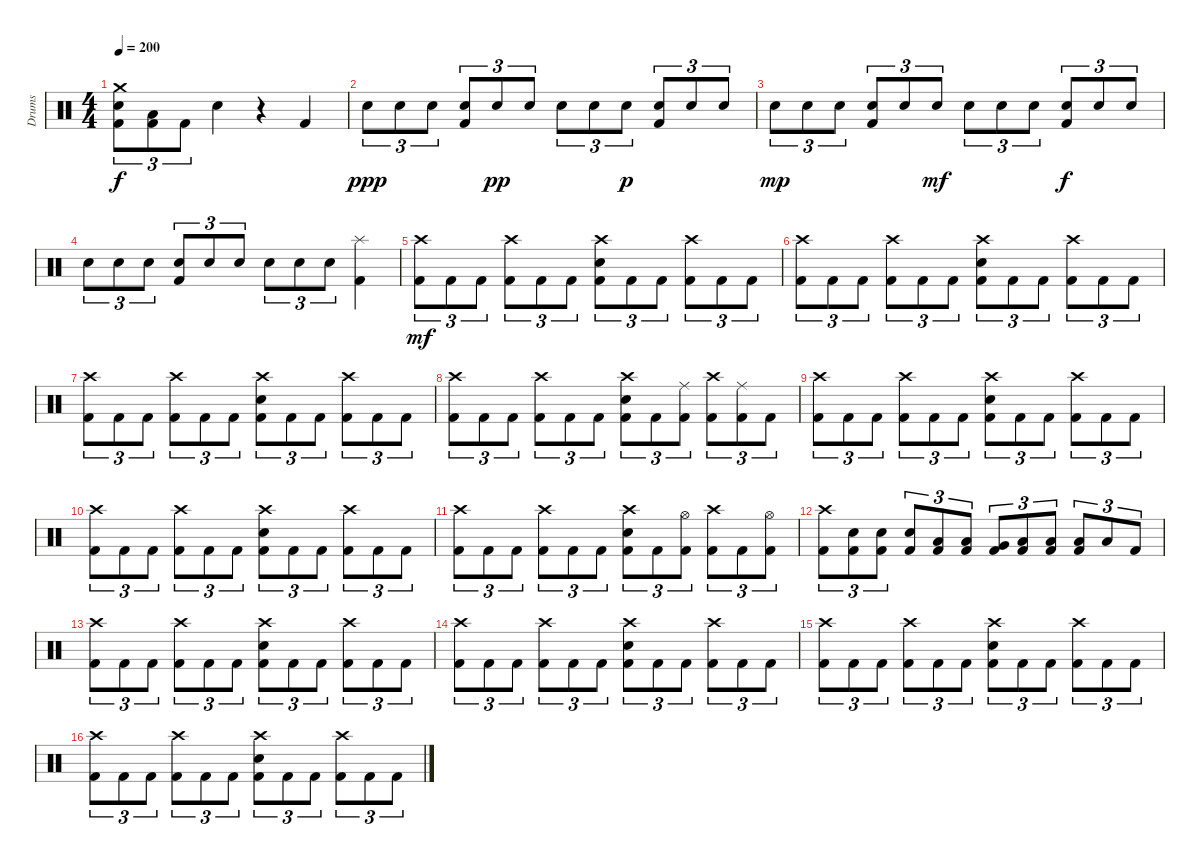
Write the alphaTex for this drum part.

\track ("Drums" "Drums") {instrument percussion}
\staff {score}
\articulation defaults
\ts (4 4)
\tempo 200
\clef neutral
\ks c
("Crash medium (hit)" "Electric Snare (hit)" "Kick (hit) 2").8{tu (3 2) dy f} ("Low Floor Tom (hit)" "Kick (hit) 2").8{tu (3 2)} "Kick (hit) 2".8{tu (3 2)} "Electric Snare (hit)".4 r.4 "Kick (hit) 2".4 |
"Electric Snare (hit)".8{tu (3 2) dy ppp} "Electric Snare (hit)".8{tu (3 2)} "Electric Snare (hit)".8{tu (3 2)} ("Electric Snare (hit)" "Kick (hit) 2").8{tu (3 2)} "Electric Snare (hit)".8{tu (3 2) dy pp} "Electric Snare (hit)".8{tu (3 2)} "Electric Snare (hit)".8{tu (3 2)} "Electric Snare (hit)".8{tu (3 2)} "Electric Snare (hit)".8{tu (3 2) dy p} ("Electric Snare (hit)" "Kick (hit) 2").8{tu (3 2)} "Electric Snare (hit)".8{tu (3 2)} "Electric Snare (hit)".8{tu (3 2)} |
"Electric Snare (hit)".8{tu (3 2) dy mp} "Electric Snare (hit)".8{tu (3 2)} "Electric Snare (hit)".8{tu (3 2)} ("Electric Snare (hit)" "Kick (hit) 2").8{tu (3 2)} "Electric Snare (hit)".8{tu (3 2)} "Electric Snare (hit)".8{tu (3 2) dy mf} "Electric Snare (hit)".8{tu (3 2)} "Electric Snare (hit)".8{tu (3 2)} "Electric Snare (hit)".8{tu (3 2)} ("Electric Snare (hit)" "Kick (hit) 2").8{tu (3 2) dy f} "Electric Snare (hit)".8{tu (3 2)} "Electric Snare (hit)".8{tu (3 2)} |
"Electric Snare (hit)".8{tu (3 2)} "Electric Snare (hit)".8{tu (3 2)} "Electric Snare (hit)".8{tu (3 2)} ("Electric Snare (hit)" "Kick (hit) 2").8{tu (3 2)} "Electric Snare (hit)".8{tu (3 2)} "Electric Snare (hit)".8{tu (3 2)} "Electric Snare (hit)".8{tu (3 2)} "Electric Snare (hit)".8{tu (3 2)} "Electric Snare (hit)".8{tu (3 2)} ("Splash (hit)" "Kick (hit) 2").4 |
("Crash high (hit)" "Kick (hit) 2").8{tu (3 2) dy mf} "Kick (hit) 2".8{tu (3 2)} "Kick (hit) 2".8{tu (3 2)} ("Crash high (hit)" "Kick (hit) 2").8{tu (3 2)} "Kick (hit) 2".8{tu (3 2)} "Kick (hit) 2".8{tu (3 2)} ("Crash high (hit)" "Electric Snare (hit)" "Kick (hit) 2").8{tu (3 2)} "Kick (hit) 2".8{tu (3 2)} "Kick (hit) 2".8{tu (3 2)} ("Crash high (hit)" "Kick (hit) 2").8{tu (3 2)} "Kick (hit) 2".8{tu (3 2)} "Kick (hit) 2".8{tu (3 2)} |
("Crash high (hit)" "Kick (hit) 2").8{tu (3 2)} "Kick (hit) 2".8{tu (3 2)} "Kick (hit) 2".8{tu (3 2)} ("Crash high (hit)" "Kick (hit) 2").8{tu (3 2)} "Kick (hit) 2".8{tu (3 2)} "Kick (hit) 2".8{tu (3 2)} ("Crash high (hit)" "Electric Snare (hit)" "Kick (hit) 2").8{tu (3 2)} "Kick (hit) 2".8{tu (3 2)} "Kick (hit) 2".8{tu (3 2)} ("Crash high (hit)" "Kick (hit) 2").8{tu (3 2)} "Kick (hit) 2".8{tu (3 2)} "Kick (hit) 2".8{tu (3 2)} |
("Crash high (hit)" "Kick (hit) 2").8{tu (3 2)} "Kick (hit) 2".8{tu (3 2)} "Kick (hit) 2".8{tu (3 2)} ("Crash high (hit)" "Kick (hit) 2").8{tu (3 2)} "Kick (hit) 2".8{tu (3 2)} "Kick (hit) 2".8{tu (3 2)} ("Crash high (hit)" "Electric Snare (hit)" "Kick (hit) 2").8{tu (3 2)} "Kick (hit) 2".8{tu (3 2)} "Kick (hit) 2".8{tu (3 2)} ("Crash high (hit)" "Kick (hit) 2").8{tu (3 2)} "Kick (hit) 2".8{tu (3 2)} "Kick (hit) 2".8{tu (3 2)} |
("Crash high (hit)" "Kick (hit) 2").8{tu (3 2)} "Kick (hit) 2".8{tu (3 2)} "Kick (hit) 2".8{tu (3 2)} ("Crash high (hit)" "Kick (hit) 2").8{tu (3 2)} "Kick (hit) 2".8{tu (3 2)} "Kick (hit) 2".8{tu (3 2)} ("Crash high (hit)" "Electric Snare (hit)" "Kick (hit) 2").8{tu (3 2)} "Kick (hit) 2".8{tu (3 2)} ("Ride (middle)" "Kick (hit) 2").8{tu (3 2)} ("Crash high (hit)" "Kick (hit) 2").8{tu (3 2)} ("Ride (middle)" "Kick (hit) 2").8{tu (3 2)} "Kick (hit) 2".8{tu (3 2)} |
("Crash high (hit)" "Kick (hit) 2").8{tu (3 2)} "Kick (hit) 2".8{tu (3 2)} "Kick (hit) 2".8{tu (3 2)} ("Crash high (hit)" "Kick (hit) 2").8{tu (3 2)} "Kick (hit) 2".8{tu (3 2)} "Kick (hit) 2".8{tu (3 2)} ("Crash high (hit)" "Electric Snare (hit)" "Kick (hit) 2").8{tu (3 2)} "Kick (hit) 2".8{tu (3 2)} "Kick (hit) 2".8{tu (3 2)} ("Crash high (hit)" "Kick (hit) 2").8{tu (3 2)} "Kick (hit) 2".8{tu (3 2)} "Kick (hit) 2".8{tu (3 2)} |
("Crash high (hit)" "Kick (hit) 2").8{tu (3 2)} "Kick (hit) 2".8{tu (3 2)} "Kick (hit) 2".8{tu (3 2)} ("Crash high (hit)" "Kick (hit) 2").8{tu (3 2)} "Kick (hit) 2".8{tu (3 2)} "Kick (hit) 2".8{tu (3 2)} ("Crash high (hit)" "Electric Snare (hit)" "Kick (hit) 2").8{tu (3 2)} "Kick (hit) 2".8{tu (3 2)} "Kick (hit) 2".8{tu (3 2)} ("Crash high (hit)" "Kick (hit) 2").8{tu (3 2)} "Kick (hit) 2".8{tu (3 2)} "Kick (hit) 2".8{tu (3 2)} |
("Crash high (hit)" "Kick (hit) 2").8{tu (3 2)} "Kick (hit) 2".8{tu (3 2)} "Kick (hit) 2".8{tu (3 2)} ("Crash high (hit)" "Kick (hit) 2").8{tu (3 2)} "Kick (hit) 2".8{tu (3 2)} "Kick (hit) 2".8{tu (3 2)} ("Crash high (hit)" "Electric Snare (hit)" "Kick (hit) 2").8{tu (3 2)} "Kick (hit) 2".8{tu (3 2)} ("Hi-Hat (open)" "Kick (hit) 2").8{tu (3 2)} ("Crash high (hit)" "Kick (hit) 2").8{tu (3 2)} "Kick (hit) 2".8{tu (3 2)} ("Hi-Hat (open)" "Kick (hit) 2").8{tu (3 2)} |
("Crash high (hit)" "Kick (hit) 2").8{tu (3 2)} ("Electric Snare (hit)" "Kick (hit) 2").8{tu (3 2)} ("Electric Snare (hit)" "Kick (hit) 2").8{tu (3 2)} ("Electric Snare (hit)" "Kick (hit) 2").8{tu (3 2)} ("Low Tom (hit)" "Kick (hit) 2").8{tu (3 2)} ("Low Tom (hit)" "Kick (hit) 2").8{tu (3 2)} ("Very Low Tom (hit)" "Kick (hit) 2").8{tu (3 2)} ("Low Floor Tom (hit)" "Kick (hit) 2").8{tu (3 2)} ("Low Floor Tom (hit)" "Kick (hit) 2").8{tu (3 2)} ("Low Floor Tom (hit)" "Kick (hit) 2").8{tu (3 2)} "Low Floor Tom (hit)".8{tu (3 2)} "Kick (hit) 2".8{tu (3 2)} |
("Crash high (hit)" "Kick (hit) 2").8{tu (3 2)} "Kick (hit) 2".8{tu (3 2)} "Kick (hit) 2".8{tu (3 2)} ("Crash high (hit)" "Kick (hit) 2").8{tu (3 2)} "Kick (hit) 2".8{tu (3 2)} "Kick (hit) 2".8{tu (3 2)} ("Crash high (hit)" "Electric Snare (hit)" "Kick (hit) 2").8{tu (3 2)} "Kick (hit) 2".8{tu (3 2)} "Kick (hit) 2".8{tu (3 2)} ("Crash high (hit)" "Kick (hit) 2").8{tu (3 2)} "Kick (hit) 2".8{tu (3 2)} "Kick (hit) 2".8{tu (3 2)} |
("Crash high (hit)" "Kick (hit) 2").8{tu (3 2)} "Kick (hit) 2".8{tu (3 2)} "Kick (hit) 2".8{tu (3 2)} ("Crash high (hit)" "Kick (hit) 2").8{tu (3 2)} "Kick (hit) 2".8{tu (3 2)} "Kick (hit) 2".8{tu (3 2)} ("Crash high (hit)" "Electric Snare (hit)" "Kick (hit) 2").8{tu (3 2)} "Kick (hit) 2".8{tu (3 2)} "Kick (hit) 2".8{tu (3 2)} ("Crash high (hit)" "Kick (hit) 2").8{tu (3 2)} "Kick (hit) 2".8{tu (3 2)} "Kick (hit) 2".8{tu (3 2)} |
("Crash high (hit)" "Kick (hit) 2").8{tu (3 2)} "Kick (hit) 2".8{tu (3 2)} "Kick (hit) 2".8{tu (3 2)} ("Crash high (hit)" "Kick (hit) 2").8{tu (3 2)} "Kick (hit) 2".8{tu (3 2)} "Kick (hit) 2".8{tu (3 2)} ("Crash high (hit)" "Electric Snare (hit)" "Kick (hit) 2").8{tu (3 2)} "Kick (hit) 2".8{tu (3 2)} "Kick (hit) 2".8{tu (3 2)} ("Crash high (hit)" "Kick (hit) 2").8{tu (3 2)} "Kick (hit) 2".8{tu (3 2)} "Kick (hit) 2".8{tu (3 2)} |
("Crash high (hit)" "Kick (hit) 2").8{tu (3 2)} "Kick (hit) 2".8{tu (3 2)} "Kick (hit) 2".8{tu (3 2)} ("Crash high (hit)" "Kick (hit) 2").8{tu (3 2)} "Kick (hit) 2".8{tu (3 2)} "Kick (hit) 2".8{tu (3 2)} ("Crash high (hit)" "Electric Snare (hit)" "Kick (hit) 2").8{tu (3 2)} "Kick (hit) 2".8{tu (3 2)} "Kick (hit) 2".8{tu (3 2)} ("Crash high (hit)" "Kick (hit) 2").8{tu (3 2)} "Kick (hit) 2".8{tu (3 2)} "Kick (hit) 2".8{tu (3 2)}
